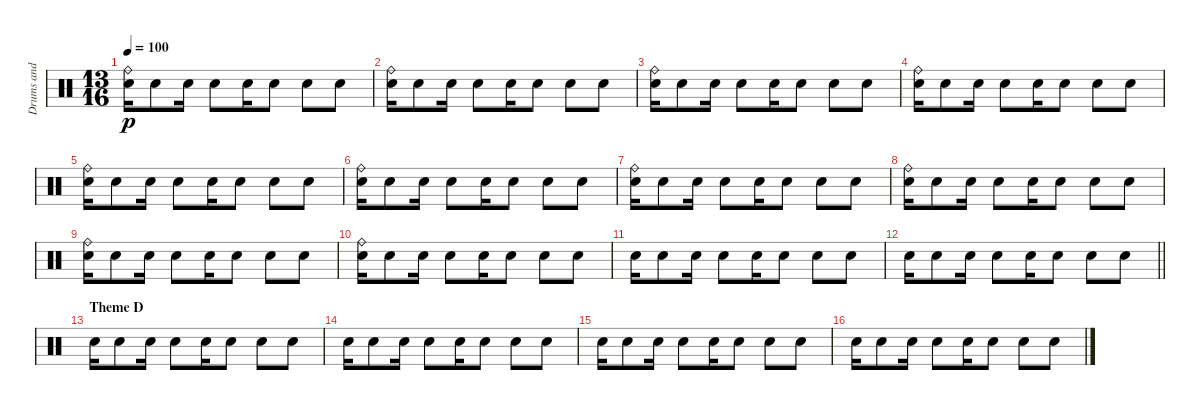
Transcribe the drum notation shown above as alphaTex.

\track ("Drums and FX" "Drums and ") {instrument percussion}
\staff {score}
\articulation defaults
\ts (13 16)
\tempo 100
\clef neutral
\ks c
("Ride (bell)" "Electric Snare (hit)").16{dy p} "Electric Snare (hit)".8 "Electric Snare (hit)".16 "Electric Snare (hit)".8 "Electric Snare (hit)".16 "Electric Snare (hit)".8 "Electric Snare (hit)".8 "Electric Snare (hit)".8 |
("Ride (bell)" "Electric Snare (hit)").16 "Electric Snare (hit)".8 "Electric Snare (hit)".16 "Electric Snare (hit)".8 "Electric Snare (hit)".16 "Electric Snare (hit)".8 "Electric Snare (hit)".8 "Electric Snare (hit)".8 |
("Ride (bell)" "Electric Snare (hit)").16 "Electric Snare (hit)".8 "Electric Snare (hit)".16 "Electric Snare (hit)".8 "Electric Snare (hit)".16 "Electric Snare (hit)".8 "Electric Snare (hit)".8 "Electric Snare (hit)".8 |
("Ride (bell)" "Electric Snare (hit)").16 "Electric Snare (hit)".8 "Electric Snare (hit)".16 "Electric Snare (hit)".8 "Electric Snare (hit)".16 "Electric Snare (hit)".8 "Electric Snare (hit)".8 "Electric Snare (hit)".8 |
("Ride (bell)" "Electric Snare (hit)").16 "Electric Snare (hit)".8 "Electric Snare (hit)".16 "Electric Snare (hit)".8 "Electric Snare (hit)".16 "Electric Snare (hit)".8 "Electric Snare (hit)".8 "Electric Snare (hit)".8 |
("Ride (bell)" "Electric Snare (hit)").16 "Electric Snare (hit)".8 "Electric Snare (hit)".16 "Electric Snare (hit)".8 "Electric Snare (hit)".16 "Electric Snare (hit)".8 "Electric Snare (hit)".8 "Electric Snare (hit)".8 |
("Ride (bell)" "Electric Snare (hit)").16 "Electric Snare (hit)".8 "Electric Snare (hit)".16 "Electric Snare (hit)".8 "Electric Snare (hit)".16 "Electric Snare (hit)".8 "Electric Snare (hit)".8 "Electric Snare (hit)".8 |
("Ride (bell)" "Electric Snare (hit)").16 "Electric Snare (hit)".8 "Electric Snare (hit)".16 "Electric Snare (hit)".8 "Electric Snare (hit)".16 "Electric Snare (hit)".8 "Electric Snare (hit)".8 "Electric Snare (hit)".8 |
("Ride (bell)" "Electric Snare (hit)").16 "Electric Snare (hit)".8 "Electric Snare (hit)".16 "Electric Snare (hit)".8 "Electric Snare (hit)".16 "Electric Snare (hit)".8 "Electric Snare (hit)".8 "Electric Snare (hit)".8 |
("Ride (bell)" "Electric Snare (hit)").16 "Electric Snare (hit)".8 "Electric Snare (hit)".16 "Electric Snare (hit)".8 "Electric Snare (hit)".16 "Electric Snare (hit)".8 "Electric Snare (hit)".8 "Electric Snare (hit)".8 |
"Electric Snare (hit)".16 "Electric Snare (hit)".8 "Electric Snare (hit)".16 "Electric Snare (hit)".8 "Electric Snare (hit)".16 "Electric Snare (hit)".8 "Electric Snare (hit)".8 "Electric Snare (hit)".8 |
\barLineRight lightlight "Electric Snare (hit)".16 "Electric Snare (hit)".8 "Electric Snare (hit)".16 "Electric Snare (hit)".8 "Electric Snare (hit)".16 "Electric Snare (hit)".8 "Electric Snare (hit)".8 "Electric Snare (hit)".8
|
\section ("" "Theme D")
"Electric Snare (hit)".16 "Electric Snare (hit)".8 "Electric Snare (hit)".16 "Electric Snare (hit)".8 "Electric Snare (hit)".16 "Electric Snare (hit)".8 "Electric Snare (hit)".8 "Electric Snare (hit)".8 |
"Electric Snare (hit)".16 "Electric Snare (hit)".8 "Electric Snare (hit)".16 "Electric Snare (hit)".8 "Electric Snare (hit)".16 "Electric Snare (hit)".8 "Electric Snare (hit)".8 "Electric Snare (hit)".8 |
"Electric Snare (hit)".16 "Electric Snare (hit)".8 "Electric Snare (hit)".16 "Electric Snare (hit)".8 "Electric Snare (hit)".16 "Electric Snare (hit)".8 "Electric Snare (hit)".8 "Electric Snare (hit)".8 |
"Electric Snare (hit)".16 "Electric Snare (hit)".8 "Electric Snare (hit)".16 "Electric Snare (hit)".8 "Electric Snare (hit)".16 "Electric Snare (hit)".8 "Electric Snare (hit)".8 "Electric Snare (hit)".8
